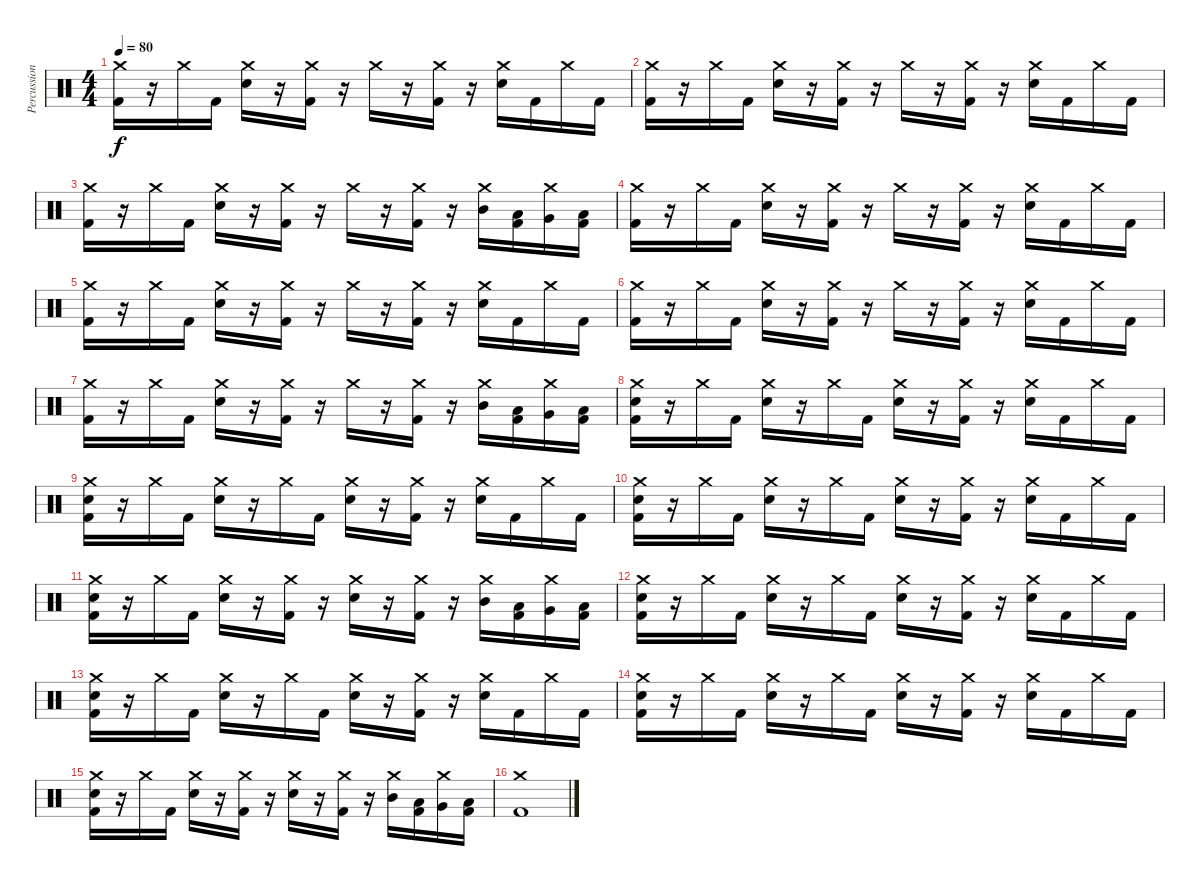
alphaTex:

\track ("Percussion" "Percussion") {instrument percussion}
\staff {score}
\articulation defaults
\ts (4 4)
\tempo 80
\clef neutral
\ks c
("Crash medium (hit)" "Kick (hit) 2").16{dy f} r.16 "Crash medium (hit)".16 "Kick (hit) 2".16 ("Crash medium (hit)" "Electric Snare (hit)").16 r.16 ("Crash medium (hit)" "Kick (hit) 2").16 r.16 "Crash medium (hit)".16 r.16 ("Crash medium (hit)" "Kick (hit) 2").16 r.16 ("Crash medium (hit)" "Electric Snare (hit)").16 "Kick (hit) 2".16 "Crash medium (hit)".16 "Kick (hit) 2".16 |
("Crash medium (hit)" "Kick (hit) 2").16 r.16 "Crash medium (hit)".16 "Kick (hit) 2".16 ("Crash medium (hit)" "Electric Snare (hit)").16 r.16 ("Crash medium (hit)" "Kick (hit) 2").16 r.16 "Crash medium (hit)".16 r.16 ("Crash medium (hit)" "Kick (hit) 2").16 r.16 ("Crash medium (hit)" "Electric Snare (hit)").16 "Kick (hit) 2".16 "Crash medium (hit)".16 "Kick (hit) 2".16 |
("Crash medium (hit)" "Kick (hit) 2").16 r.16 "Crash medium (hit)".16 "Kick (hit) 2".16 ("Crash medium (hit)" "Electric Snare (hit)").16 r.16 ("Crash medium (hit)" "Kick (hit) 2").16 r.16 "Crash medium (hit)".16 r.16 ("Crash medium (hit)" "Kick (hit) 2").16 r.16 ("Crash medium (hit)" "Mid Tom (hit)").16 ("Low Tom (hit)" "Kick (hit) 2").16 ("Crash medium (hit)" "Very Low Tom (hit)").16 ("Low Floor Tom (hit)" "Kick (hit) 2").16 |
("Crash medium (hit)" "Kick (hit) 2").16 r.16 "Crash medium (hit)".16 "Kick (hit) 2".16 ("Crash medium (hit)" "Electric Snare (hit)").16 r.16 ("Crash medium (hit)" "Kick (hit) 2").16 r.16 "Crash medium (hit)".16 r.16 ("Crash medium (hit)" "Kick (hit) 2").16 r.16 ("Crash medium (hit)" "Electric Snare (hit)").16 "Kick (hit) 2".16 "Crash medium (hit)".16 "Kick (hit) 2".16 |
("Crash medium (hit)" "Kick (hit) 2").16 r.16 "Crash medium (hit)".16 "Kick (hit) 2".16 ("Crash medium (hit)" "Electric Snare (hit)").16 r.16 ("Crash medium (hit)" "Kick (hit) 2").16 r.16 "Crash medium (hit)".16 r.16 ("Crash medium (hit)" "Kick (hit) 2").16 r.16 ("Crash medium (hit)" "Electric Snare (hit)").16 "Kick (hit) 2".16 "Crash medium (hit)".16 "Kick (hit) 2".16 |
("Crash medium (hit)" "Kick (hit) 2").16 r.16 "Crash medium (hit)".16 "Kick (hit) 2".16 ("Crash medium (hit)" "Electric Snare (hit)").16 r.16 ("Crash medium (hit)" "Kick (hit) 2").16 r.16 "Crash medium (hit)".16 r.16 ("Crash medium (hit)" "Kick (hit) 2").16 r.16 ("Crash medium (hit)" "Electric Snare (hit)").16 "Kick (hit) 2".16 "Crash medium (hit)".16 "Kick (hit) 2".16 |
("Crash medium (hit)" "Kick (hit) 2").16 r.16 "Crash medium (hit)".16 "Kick (hit) 2".16 ("Crash medium (hit)" "Electric Snare (hit)").16 r.16 ("Crash medium (hit)" "Kick (hit) 2").16 r.16 "Crash medium (hit)".16 r.16 ("Crash medium (hit)" "Kick (hit) 2").16 r.16 ("Crash medium (hit)" "Mid Tom (hit)").16 ("Low Tom (hit)" "Kick (hit) 2").16 ("Crash medium (hit)" "Very Low Tom (hit)").16 ("Low Floor Tom (hit)" "Kick (hit) 2").16 |
("Crash medium (hit)" "Electric Snare (hit)" "Kick (hit) 2").16 r.16 "Crash medium (hit)".16 "Kick (hit) 2".16 ("Crash medium (hit)" "Electric Snare (hit)").16 r.16 "Crash medium (hit)".16 "Kick (hit) 2".16 ("Crash medium (hit)" "Electric Snare (hit)").16 r.16 ("Crash medium (hit)" "Kick (hit) 2").16 r.16 ("Crash medium (hit)" "Electric Snare (hit)").16 "Kick (hit) 2".16 "Crash medium (hit)".16 "Kick (hit) 2".16 |
("Crash medium (hit)" "Electric Snare (hit)" "Kick (hit) 2").16 r.16 "Crash medium (hit)".16 "Kick (hit) 2".16 ("Crash medium (hit)" "Electric Snare (hit)").16 r.16 "Crash medium (hit)".16 "Kick (hit) 2".16 ("Crash medium (hit)" "Electric Snare (hit)").16 r.16 ("Crash medium (hit)" "Kick (hit) 2").16 r.16 ("Crash medium (hit)" "Electric Snare (hit)").16 "Kick (hit) 2".16 "Crash medium (hit)".16 "Kick (hit) 2".16 |
("Crash medium (hit)" "Electric Snare (hit)" "Kick (hit) 2").16 r.16 "Crash medium (hit)".16 "Kick (hit) 2".16 ("Crash medium (hit)" "Electric Snare (hit)").16 r.16 "Crash medium (hit)".16 "Kick (hit) 2".16 ("Crash medium (hit)" "Electric Snare (hit)").16 r.16 ("Crash medium (hit)" "Kick (hit) 2").16 r.16 ("Crash medium (hit)" "Electric Snare (hit)").16 "Kick (hit) 2".16 "Crash medium (hit)".16 "Kick (hit) 2".16 |
("Crash medium (hit)" "Electric Snare (hit)" "Kick (hit) 2").16 r.16 "Crash medium (hit)".16 "Kick (hit) 2".16 ("Crash medium (hit)" "Electric Snare (hit)").16 r.16 ("Crash medium (hit)" "Kick (hit) 2").16 r.16 ("Crash medium (hit)" "Electric Snare (hit)").16 r.16 ("Crash medium (hit)" "Kick (hit) 2").16 r.16 ("Crash medium (hit)" "Mid Tom (hit)").16 ("Low Tom (hit)" "Kick (hit) 2").16 ("Crash medium (hit)" "Very Low Tom (hit)").16 ("Low Floor Tom (hit)" "Kick (hit) 2").16 |
("Crash medium (hit)" "Electric Snare (hit)" "Kick (hit) 2").16 r.16 "Crash medium (hit)".16 "Kick (hit) 2".16 ("Crash medium (hit)" "Electric Snare (hit)").16 r.16 "Crash medium (hit)".16 "Kick (hit) 2".16 ("Crash medium (hit)" "Electric Snare (hit)").16 r.16 ("Crash medium (hit)" "Kick (hit) 2").16 r.16 ("Crash medium (hit)" "Electric Snare (hit)").16 "Kick (hit) 2".16 "Crash medium (hit)".16 "Kick (hit) 2".16 |
("Crash medium (hit)" "Electric Snare (hit)" "Kick (hit) 2").16 r.16 "Crash medium (hit)".16 "Kick (hit) 2".16 ("Crash medium (hit)" "Electric Snare (hit)").16 r.16 "Crash medium (hit)".16 "Kick (hit) 2".16 ("Crash medium (hit)" "Electric Snare (hit)").16 r.16 ("Crash medium (hit)" "Kick (hit) 2").16 r.16 ("Crash medium (hit)" "Electric Snare (hit)").16 "Kick (hit) 2".16 "Crash medium (hit)".16 "Kick (hit) 2".16 |
("Crash medium (hit)" "Electric Snare (hit)" "Kick (hit) 2").16 r.16 "Crash medium (hit)".16 "Kick (hit) 2".16 ("Crash medium (hit)" "Electric Snare (hit)").16 r.16 "Crash medium (hit)".16 "Kick (hit) 2".16 ("Crash medium (hit)" "Electric Snare (hit)").16 r.16 ("Crash medium (hit)" "Kick (hit) 2").16 r.16 ("Crash medium (hit)" "Electric Snare (hit)").16 "Kick (hit) 2".16 "Crash medium (hit)".16 "Kick (hit) 2".16 |
("Crash medium (hit)" "Electric Snare (hit)" "Kick (hit) 2").16 r.16 "Crash medium (hit)".16 "Kick (hit) 2".16 ("Crash medium (hit)" "Electric Snare (hit)").16 r.16 ("Crash medium (hit)" "Kick (hit) 2").16 r.16 ("Crash medium (hit)" "Electric Snare (hit)").16 r.16 ("Crash medium (hit)" "Kick (hit) 2").16 r.16 ("Crash medium (hit)" "Mid Tom (hit)").16 ("Low Tom (hit)" "Kick (hit) 2").16 ("Crash medium (hit)" "Very Low Tom (hit)").16 ("Low Floor Tom (hit)" "Kick (hit) 2").16 |
("Crash medium (hit)" "Kick (hit) 2").1
